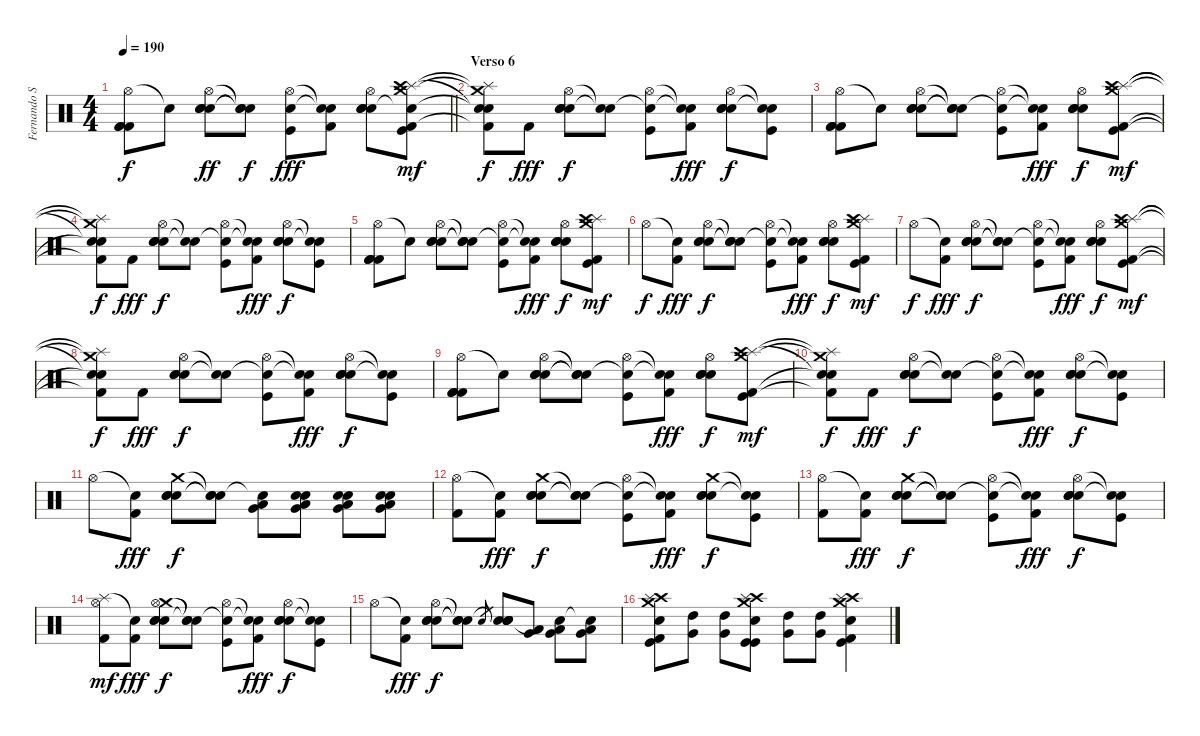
\track ("Fernando Sarcella" "Fernando S") {instrument percussion}
\staff {score}
\articulation defaults
\ts (4 4)
\tempo 190
\clef neutral
\barLineRight lightlight
\ks c
("Hi-Hat (open)" "Kick (hit) 2" "Kick (hit) 2" "Kick (hit) 2").8{dy f} "Snare (hit)"{t}.8 ("Hi-Hat (open)" "Electric Snare (hit)" "Electric Snare (hit)" "Electric Snare (hit)").8{dy ff} ("Snare (hit)"{t} "Snare (hit)"{t} "Snare (hit)"{t}).8{dy f} ("Hi-Hat (open)" "Electric Snare (hit)" "Kick (hit)").8{dy fff} ("Snare (hit)"{t} "Snare (hit)"{t} "Kick (hit) 2").8 ("Hi-Hat (open)" "Electric Snare (hit)" "Electric Snare (hit)" "Electric Snare (hit)").8 ("Crash medium (hit)" "Splash (hit)" "Snare (hit)"{t} "Crash high (hit)" "Kick (hit) 2" "Kick (hit)").8{dy mf} |
\section ("" "Verso 6")
("Crash medium (hit)"{t} "Splash (hit)"{t} "Snare (hit)"{t} "Snare (hit)"{t} "Kick (hit) 2"{t}).8{dy f} "Kick (hit) 2".8{dy fff} ("Hi-Hat (open)" "Electric Snare (hit)" "Electric Snare (hit)" "Electric Snare (hit)").8{dy f} ("Snare (hit)"{t} "Snare (hit)"{t}).8 ("Hi-Hat (open)" "Snare (hit)"{t} "Kick (hit)").8 ("Snare (hit)"{t} "Snare (hit)"{t} "Kick (hit) 2").8{dy fff} ("Hi-Hat (open)" "Electric Snare (hit)" "Electric Snare (hit)" "Electric Snare (hit)").8{dy f} ("Snare (hit)"{t} "Snare (hit)"{t} "Kick (hit)").8 |
("Hi-Hat (open)" "Kick (hit) 2" "Kick (hit) 2" "Kick (hit) 2").8 "Snare (hit)"{t}.8 ("Hi-Hat (open)" "Electric Snare (hit)" "Electric Snare (hit)" "Electric Snare (hit)").8 ("Snare (hit)"{t} "Snare (hit)"{t} "Snare (hit)"{t}).8 ("Hi-Hat (open)" "Snare (hit)"{t} "Kick (hit)").8 ("Snare (hit)"{t} "Snare (hit)"{t} "Kick (hit) 2").8{dy fff} ("Hi-Hat (open)" "Electric Snare (hit)" "Electric Snare (hit)" "Electric Snare (hit)").8{dy f} ("Crash medium (hit)" "Splash (hit)" "Crash high (hit)" "Kick (hit) 2" "Kick (hit)").8{dy mf} |
("Crash medium (hit)"{t} "Splash (hit)"{t} "Snare (hit)"{t} "Snare (hit)"{t} "Kick (hit) 2"{t}).8{dy f} "Kick (hit) 2".8{dy fff} ("Hi-Hat (open)" "Electric Snare (hit)" "Electric Snare (hit)" "Electric Snare (hit)").8{dy f} ("Snare (hit)"{t} "Snare (hit)"{t}).8 ("Hi-Hat (open)" "Snare (hit)"{t} "Kick (hit)").8 ("Snare (hit)"{t} "Snare (hit)"{t} "Kick (hit) 2").8{dy fff} ("Hi-Hat (open)" "Electric Snare (hit)" "Electric Snare (hit)" "Electric Snare (hit)").8{dy f} ("Snare (hit)"{t} "Snare (hit)"{t} "Kick (hit)").8 |
("Hi-Hat (open)" "Kick (hit) 2" "Kick (hit) 2" "Kick (hit) 2").8 "Snare (hit)"{t}.8 ("Hi-Hat (open)" "Electric Snare (hit)" "Electric Snare (hit)" "Electric Snare (hit)").8 ("Snare (hit)"{t} "Snare (hit)"{t} "Snare (hit)"{t}).8 ("Hi-Hat (open)" "Snare (hit)"{t} "Kick (hit)").8 ("Snare (hit)"{t} "Snare (hit)"{t} "Kick (hit) 2").8{dy fff} ("Hi-Hat (open)" "Electric Snare (hit)" "Electric Snare (hit)" "Electric Snare (hit)").8{dy f} ("Crash medium (hit)" "Splash (hit)" "Crash high (hit)" "Kick (hit) 2" "Kick (hit)").8{dy mf} |
"Hi-Hat (open)".8{dy f} ("Snare (hit)"{t} "Kick (hit) 2").8{dy fff} ("Hi-Hat (open)" "Electric Snare (hit)" "Electric Snare (hit)" "Electric Snare (hit)").8{dy f} ("Snare (hit)"{t} "Snare (hit)"{t} "Snare (hit)"{t}).8 ("Hi-Hat (open)" "Snare (hit)"{t} "Kick (hit)").8 ("Snare (hit)"{t} "Snare (hit)"{t} "Kick (hit) 2").8{dy fff} ("Hi-Hat (open)" "Electric Snare (hit)" "Electric Snare (hit)" "Electric Snare (hit)").8{dy f} ("Crash medium (hit)" "Splash (hit)" "Crash high (hit)" "Kick (hit) 2" "Kick (hit)").8{dy mf} |
"Hi-Hat (open)".8{dy f} ("Snare (hit)"{t} "Kick (hit) 2").8{dy fff} ("Hi-Hat (open)" "Electric Snare (hit)" "Electric Snare (hit)" "Electric Snare (hit)").8{dy f} ("Snare (hit)"{t} "Snare (hit)"{t} "Snare (hit)"{t}).8 ("Hi-Hat (open)" "Snare (hit)"{t} "Kick (hit)").8 ("Snare (hit)"{t} "Snare (hit)"{t} "Kick (hit) 2").8{dy fff} ("Hi-Hat (open)" "Electric Snare (hit)" "Electric Snare (hit)" "Electric Snare (hit)").8{dy f} ("Crash medium (hit)" "Splash (hit)" "Crash high (hit)" "Kick (hit) 2" "Kick (hit)").8{dy mf} |
("Crash medium (hit)"{t} "Splash (hit)"{t} "Snare (hit)"{t} "Snare (hit)"{t} "Kick (hit) 2"{t}).8{dy f} "Kick (hit) 2".8{dy fff} ("Hi-Hat (open)" "Electric Snare (hit)" "Electric Snare (hit)" "Electric Snare (hit)").8{dy f} ("Snare (hit)"{t} "Snare (hit)"{t}).8 ("Hi-Hat (open)" "Snare (hit)"{t} "Kick (hit)").8 ("Snare (hit)"{t} "Snare (hit)"{t} "Kick (hit) 2").8{dy fff} ("Hi-Hat (open)" "Electric Snare (hit)" "Electric Snare (hit)" "Electric Snare (hit)").8{dy f} ("Snare (hit)"{t} "Snare (hit)"{t} "Kick (hit)").8 |
("Hi-Hat (open)" "Kick (hit) 2" "Kick (hit) 2" "Kick (hit) 2").8 "Snare (hit)"{t}.8 ("Hi-Hat (open)" "Electric Snare (hit)" "Electric Snare (hit)" "Electric Snare (hit)").8 ("Snare (hit)"{t} "Snare (hit)"{t} "Snare (hit)"{t}).8 ("Hi-Hat (open)" "Snare (hit)"{t} "Kick (hit)").8 ("Snare (hit)"{t} "Snare (hit)"{t} "Kick (hit) 2").8{dy fff} ("Hi-Hat (open)" "Electric Snare (hit)" "Electric Snare (hit)" "Electric Snare (hit)").8{dy f} ("Crash medium (hit)" "Splash (hit)" "Crash high (hit)" "Kick (hit) 2" "Kick (hit)").8{dy mf} |
("Crash medium (hit)"{t} "Splash (hit)"{t} "Snare (hit)"{t} "Snare (hit)"{t} "Kick (hit) 2"{t}).8{dy f} "Kick (hit) 2".8{dy fff} ("Hi-Hat (open)" "Electric Snare (hit)" "Electric Snare (hit)" "Electric Snare (hit)").8{dy f} ("Snare (hit)"{t} "Snare (hit)"{t}).8 ("Hi-Hat (open)" "Snare (hit)"{t} "Kick (hit)").8 ("Snare (hit)"{t} "Snare (hit)"{t} "Kick (hit) 2").8{dy fff} ("Hi-Hat (open)" "Electric Snare (hit)" "Electric Snare (hit)" "Electric Snare (hit)").8{dy f} ("Snare (hit)"{t} "Snare (hit)"{t} "Kick (hit)").8 |
"Hi-Hat (open)".8 ("Snare (hit)"{t} "Kick (hit) 2").8{dy fff} ("Crash medium (hit)" "Electric Snare (hit)" "Electric Snare (hit)" "Electric Snare (hit)").8{dy f} ("Snare (hit)"{t} "Snare (hit)"{t} "Snare (hit)"{t}).8 ("Snare (hit)"{t} "Very Low Tom (hit)" "Low Tom (hit)").8 ("Electric Snare (hit)" "Electric Snare (hit)" "Very Low Tom (hit)" "Low Tom (hit)").8 ("Electric Snare (hit)" "Electric Snare (hit)" "Very Low Tom (hit)" "Low Tom (hit)").8 ("Electric Snare (hit)" "Electric Snare (hit)" "Very Low Tom (hit)" "Low Tom (hit)").8 |
("Hi-Hat (open)" "Kick (hit) 2").8 ("Snare (hit)"{t} "Kick (hit) 2").8{dy fff} ("Crash medium (hit)" "Electric Snare (hit)" "Electric Snare (hit)" "Electric Snare (hit)").8{dy f} ("Snare (hit)"{t} "Snare (hit)"{t} "Snare (hit)"{t}).8 ("Hi-Hat (open)" "Snare (hit)"{t} "Kick (hit)").8 ("Snare (hit)"{t} "Snare (hit)"{t} "Kick (hit) 2").8{dy fff} ("Crash medium (hit)" "Electric Snare (hit)" "Electric Snare (hit)" "Electric Snare (hit)").8{dy f} ("Snare (hit)"{t} "Snare (hit)"{t} "Kick (hit)").8 |
("Hi-Hat (open)" "Kick (hit) 2").8 ("Snare (hit)"{t} "Kick (hit) 2").8{dy fff} ("Crash medium (hit)" "Electric Snare (hit)" "Electric Snare (hit)" "Electric Snare (hit)").8{dy f} ("Snare (hit)"{t} "Snare (hit)"{t} "Snare (hit)"{t}).8 ("Hi-Hat (open)" "Snare (hit)"{t} "Kick (hit)").8 ("Snare (hit)"{t} "Snare (hit)"{t} "Kick (hit) 2").8{dy fff} ("Hi-Hat (open)" "Electric Snare (hit)" "Electric Snare (hit)" "Electric Snare (hit)").8{dy f} ("Snare (hit)"{t} "Snare (hit)"{t} "Kick (hit)").8 |
("Splash (hit)" "Hi-Hat (open)" "Kick (hit) 2").8{dy mf} ("Snare (hit)"{t} "Kick (hit) 2").8{dy fff} ("Crash medium (hit)" "Hi-Hat (open)" "Electric Snare (hit)" "Electric Snare (hit)" "Electric Snare (hit)").8{dy f} ("Snare (hit)"{t} "Snare (hit)"{t} "Snare (hit)"{t}).8 ("Hi-Hat (open)" "Snare (hit)"{t} "Kick (hit)").8 ("Snare (hit)"{t} "Snare (hit)"{t} "Kick (hit) 2").8{dy fff} ("Hi-Hat (open)" "Electric Snare (hit)" "Electric Snare (hit)" "Electric Snare (hit)").8{dy f} ("Snare (hit)"{t} "Snare (hit)"{t} "Kick (hit)").8 |
"Hi-Hat (open)".8 ("Snare (hit)"{t} "Kick (hit) 2").8{dy fff} ("Hi-Hat (open)" "Electric Snare (hit)" "Electric Snare (hit)" "Electric Snare (hit)").8{dy f} ("Snare (hit)"{t} "Snare (hit)"{t} "Snare (hit)"{t}).8 "Electric Snare (hit)".8{gr} ("Electric Snare (hit)" "Snare (hit)"{t} "Electric Snare (hit)" "Electric Snare (hit)").8 ("Low Tom (hit)" "Very Low Tom (hit)").8 ("Low Tom (hit)" "Very Low Tom (hit)" "Snare (hit)"{t}).8 ("Low Tom (hit)" "Very Low Tom (hit)" "Snare (hit)"{t}).8 |
("Crash medium (hit)" "Crash high (hit)" "Splash (hit)" "Electric Snare (hit)" "Kick (hit)" "Kick (hit) 2").8{balance 16} ("Very Low Tom (hit)" "High Tom (hit)").8 ("Very Low Tom (hit)" "High Tom (hit)").8 ("Crash high (hit)" "Crash medium (hit)" "Splash (hit)" "Electric Snare (hit)" "Kick (hit)" "Kick (hit)").8{balance 0} ("Very Low Tom (hit)" "High Tom (hit)").8 ("Very Low Tom (hit)" "High Tom (hit)").8 ("Crash medium (hit)" "Crash high (hit)" "Splash (hit)" "Electric Snare (hit)" "Kick (hit)" "Kick (hit) 2").4{balance 0}
